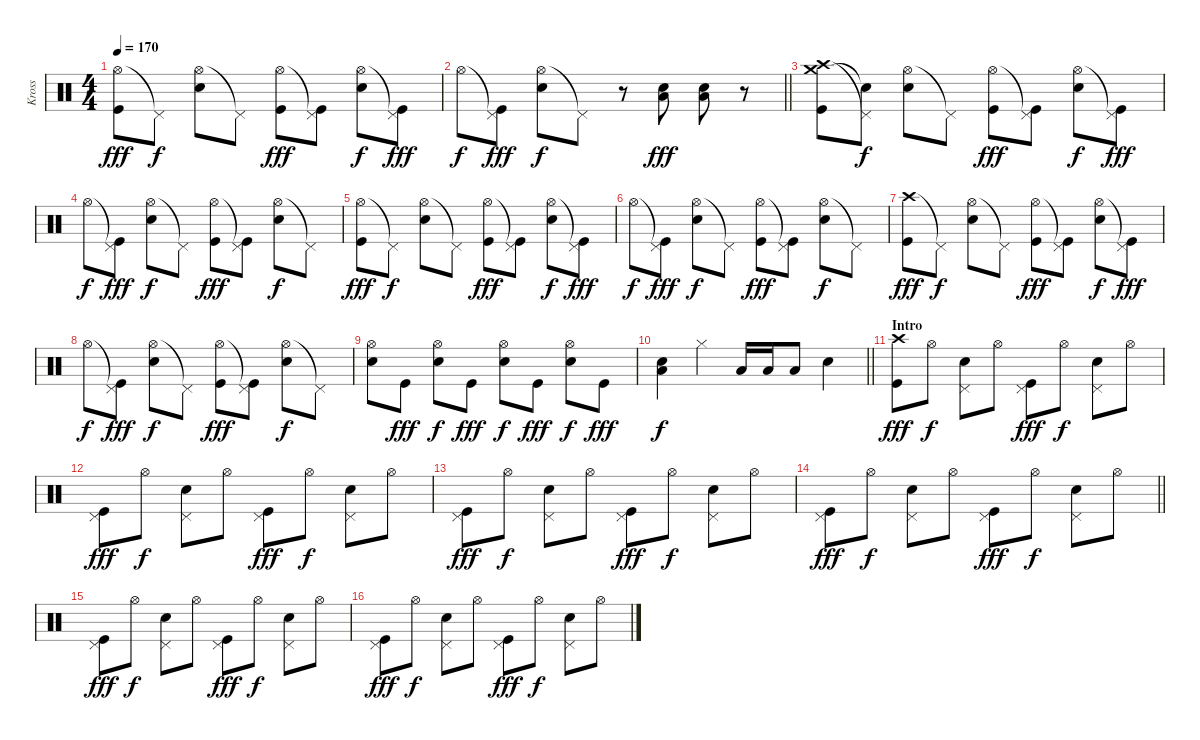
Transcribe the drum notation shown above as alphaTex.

\track ("Kross" "Kross") {instrument percussion}
\staff {score}
\articulation defaults
\ts (4 4)
\tempo 170
\clef neutral
\ks c
("Hi-Hat (open)" "Kick (hit)").8{dy fff} "Pedal Hi-Hat (hit)"{t}.8{dy f} ("Hi-Hat (open)" "Electric Snare (hit)").8 "Pedal Hi-Hat (hit)"{t}.8 ("Hi-Hat (open)" "Kick (hit)").8{dy fff} ("Pedal Hi-Hat (hit)"{t} "Kick (hit)").8 ("Hi-Hat (open)" "Electric Snare (hit)").8{dy f} ("Pedal Hi-Hat (hit)"{t} "Kick (hit)").8{dy fff} |
\barLineRight lightlight "Hi-Hat (open)".8{dy f}
("Pedal Hi-Hat (hit)"{t} "Kick (hit)").8{dy fff} ("Hi-Hat (open)" "Electric Snare (hit)").8{dy f} "Pedal Hi-Hat (hit)"{t}.8 r.8 ("Low Floor Tom (hit)" "Electric Snare (hit)").8{dy fff} ("Low Floor Tom (hit)" "Electric Snare (hit)").8 r.8 |
("Crash high (hit)" "Crash medium (hit)" "Kick (hit)").8 ("Pedal Hi-Hat (hit)"{t} "Snare (hit)"{t}).8{dy f} ("Hi-Hat (open)" "Electric Snare (hit)").8 "Pedal Hi-Hat (hit)"{t}.8 ("Hi-Hat (open)" "Kick (hit)").8{dy fff} ("Pedal Hi-Hat (hit)"{t} "Kick (hit)").8 ("Hi-Hat (open)" "Electric Snare (hit)").8{dy f} ("Pedal Hi-Hat (hit)"{t} "Kick (hit)").8{dy fff} |
"Hi-Hat (open)".8{dy f} ("Pedal Hi-Hat (hit)"{t} "Kick (hit)").8{dy fff} ("Hi-Hat (open)" "Electric Snare (hit)").8{dy f} "Pedal Hi-Hat (hit)"{t}.8 ("Hi-Hat (open)" "Kick (hit)").8{dy fff} ("Pedal Hi-Hat (hit)"{t} "Kick (hit)").8 ("Hi-Hat (open)" "Electric Snare (hit)").8{dy f} "Pedal Hi-Hat (hit)"{t}.8 |
("Hi-Hat (open)" "Kick (hit)").8{dy fff} "Pedal Hi-Hat (hit)"{t}.8{dy f} ("Hi-Hat (open)" "Electric Snare (hit)").8 "Pedal Hi-Hat (hit)"{t}.8 ("Hi-Hat (open)" "Kick (hit)").8{dy fff} ("Pedal Hi-Hat (hit)"{t} "Kick (hit)").8 ("Hi-Hat (open)" "Electric Snare (hit)").8{dy f} ("Pedal Hi-Hat (hit)"{t} "Kick (hit)").8{dy fff} |
"Hi-Hat (open)".8{dy f} ("Pedal Hi-Hat (hit)"{t} "Kick (hit)").8{dy fff} ("Hi-Hat (open)" "Electric Snare (hit)").8{dy f} "Pedal Hi-Hat (hit)"{t}.8 ("Hi-Hat (open)" "Kick (hit)").8{dy fff} ("Pedal Hi-Hat (hit)"{t} "Kick (hit)").8 ("Hi-Hat (open)" "Electric Snare (hit)").8{dy f} "Pedal Hi-Hat (hit)"{t}.8 |
("Crash high (hit)" "Kick (hit)").8{dy fff} "Pedal Hi-Hat (hit)"{t}.8{dy f} ("Hi-Hat (open)" "Electric Snare (hit)").8 "Pedal Hi-Hat (hit)"{t}.8 ("Hi-Hat (open)" "Kick (hit)").8{dy fff} ("Pedal Hi-Hat (hit)"{t} "Kick (hit)").8 ("Hi-Hat (open)" "Electric Snare (hit)").8{dy f} ("Pedal Hi-Hat (hit)"{t} "Kick (hit)").8{dy fff} |
"Hi-Hat (open)".8{dy f} ("Pedal Hi-Hat (hit)"{t} "Kick (hit)").8{dy fff} ("Hi-Hat (open)" "Electric Snare (hit)").8{dy f} "Pedal Hi-Hat (hit)"{t}.8 ("Hi-Hat (open)" "Kick (hit)").8{dy fff} ("Pedal Hi-Hat (hit)"{t} "Kick (hit)").8 ("Hi-Hat (open)" "Electric Snare (hit)").8{dy f} "Pedal Hi-Hat (hit)"{t}.8 |
("Hi-Hat (open)" "Electric Snare (hit)").8 "Kick (hit)".8{dy fff} ("Hi-Hat (open)" "Electric Snare (hit)").8{dy f} "Kick (hit)".8{dy fff} ("Hi-Hat (open)" "Electric Snare (hit)").8{dy f} "Kick (hit)".8{dy fff} ("Hi-Hat (open)" "Electric Snare (hit)").8{dy f} "Kick (hit)".8{dy fff} |
\barLineRight lightlight
("Low Floor Tom (hit)" "Electric Snare (hit)").4{dy f} "Hi-Hat (closed)".4 "Low Tom (hit)".16 "Low Tom (hit)".16 "Low Tom (hit)".8 "Electric Snare (hit)".4 |
\section ("" "Intro")
("Crash high (hit)" "Kick (hit)").8{dy fff} "Hi-Hat (open)".8{dy f} ("Pedal Hi-Hat (hit)" "Electric Snare (hit)").8 "Hi-Hat (open)".8 ("Pedal Hi-Hat (hit)" "Kick (hit)").8{dy fff} "Hi-Hat (open)".8{dy f} ("Pedal Hi-Hat (hit)" "Electric Snare (hit)").8 "Hi-Hat (open)".8 |
("Pedal Hi-Hat (hit)" "Kick (hit)").8{dy fff} "Hi-Hat (open)".8{dy f} ("Pedal Hi-Hat (hit)" "Electric Snare (hit)").8 "Hi-Hat (open)".8 ("Pedal Hi-Hat (hit)" "Kick (hit)").8{dy fff} "Hi-Hat (open)".8{dy f} ("Pedal Hi-Hat (hit)" "Electric Snare (hit)").8 "Hi-Hat (open)".8 |
("Pedal Hi-Hat (hit)" "Kick (hit)").8{dy fff} "Hi-Hat (open)".8{dy f} ("Pedal Hi-Hat (hit)" "Electric Snare (hit)").8 "Hi-Hat (open)".8 ("Pedal Hi-Hat (hit)" "Kick (hit)").8{dy fff} "Hi-Hat (open)".8{dy f} ("Pedal Hi-Hat (hit)" "Electric Snare (hit)").8 "Hi-Hat (open)".8 |
\barLineRight lightlight
("Pedal Hi-Hat (hit)" "Kick (hit)").8{dy fff} "Hi-Hat (open)".8{dy f} ("Pedal Hi-Hat (hit)" "Electric Snare (hit)").8 "Hi-Hat (open)".8 ("Pedal Hi-Hat (hit)" "Kick (hit)").8{dy fff} "Hi-Hat (open)".8{dy f} ("Pedal Hi-Hat (hit)" "Electric Snare (hit)").8 "Hi-Hat (open)".8 |
("Pedal Hi-Hat (hit)" "Kick (hit)").8{dy fff} "Hi-Hat (open)".8{dy f} ("Pedal Hi-Hat (hit)" "Electric Snare (hit)").8 "Hi-Hat (open)".8 ("Pedal Hi-Hat (hit)" "Kick (hit)").8{dy fff} "Hi-Hat (open)".8{dy f} ("Pedal Hi-Hat (hit)" "Electric Snare (hit)").8 "Hi-Hat (open)".8 |
("Pedal Hi-Hat (hit)" "Kick (hit)").8{dy fff} "Hi-Hat (open)".8{dy f} ("Pedal Hi-Hat (hit)" "Electric Snare (hit)").8 "Hi-Hat (open)".8 ("Pedal Hi-Hat (hit)" "Kick (hit)").8{dy fff} "Hi-Hat (open)".8{dy f} ("Pedal Hi-Hat (hit)" "Electric Snare (hit)").8 "Hi-Hat (open)".8
